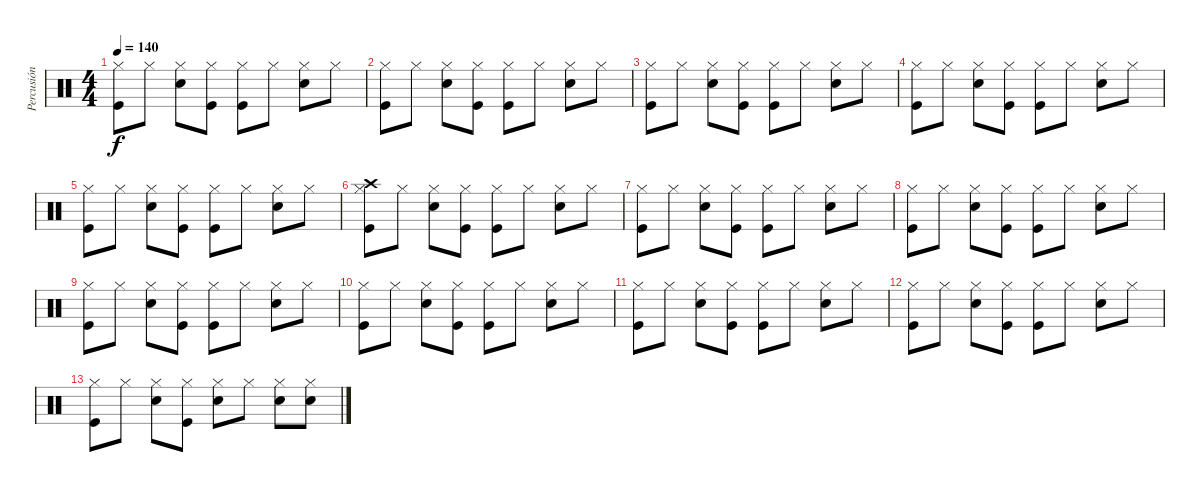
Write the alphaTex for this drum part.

\track ("Percusión" "Percusión") {instrument percussion}
\staff {score}
\articulation defaults
\ts (4 4)
\tempo 140
\clef neutral
\ks c
("Hi-Hat (closed)" "Kick (hit)").8{dy f} "Hi-Hat (closed)".8 ("Snare (hit) 2" "Hi-Hat (closed)").8 ("Kick (hit)" "Hi-Hat (closed)").8 ("Kick (hit)" "Hi-Hat (closed)").8 "Hi-Hat (closed)".8 ("Snare (hit) 2" "Hi-Hat (closed)").8 "Hi-Hat (closed)".8 |
("Hi-Hat (closed)" "Kick (hit)").8 "Hi-Hat (closed)".8 ("Snare (hit) 2" "Hi-Hat (closed)").8 ("Kick (hit)" "Hi-Hat (closed)").8 ("Kick (hit)" "Hi-Hat (closed)").8 "Hi-Hat (closed)".8 ("Snare (hit) 2" "Hi-Hat (closed)").8 "Hi-Hat (closed)".8 |
("Hi-Hat (closed)" "Kick (hit)").8 "Hi-Hat (closed)".8 ("Snare (hit) 2" "Hi-Hat (closed)").8 ("Kick (hit)" "Hi-Hat (closed)").8 ("Kick (hit)" "Hi-Hat (closed)").8 "Hi-Hat (closed)".8 ("Snare (hit) 2" "Hi-Hat (closed)").8 "Hi-Hat (closed)".8 |
("Hi-Hat (closed)" "Kick (hit)").8 "Hi-Hat (closed)".8 ("Snare (hit) 2" "Hi-Hat (closed)").8 ("Kick (hit)" "Hi-Hat (closed)").8 ("Kick (hit)" "Hi-Hat (closed)").8 "Hi-Hat (closed)".8 ("Snare (hit) 2" "Hi-Hat (closed)").8 "Hi-Hat (closed)".8 |
("Hi-Hat (closed)" "Kick (hit)").8 "Hi-Hat (closed)".8 ("Snare (hit) 2" "Hi-Hat (closed)").8 ("Kick (hit)" "Hi-Hat (closed)").8 ("Kick (hit)" "Hi-Hat (closed)").8 "Hi-Hat (closed)".8 ("Snare (hit) 2" "Hi-Hat (closed)").8 "Hi-Hat (closed)".8 |
("Hi-Hat (closed)" "Crash high (hit)" "Kick (hit)").8 "Hi-Hat (closed)".8 ("Snare (hit) 2" "Hi-Hat (closed)").8 ("Kick (hit)" "Hi-Hat (closed)").8 ("Kick (hit)" "Hi-Hat (closed)").8 "Hi-Hat (closed)".8 ("Snare (hit) 2" "Hi-Hat (closed)").8 "Hi-Hat (closed)".8 |
("Hi-Hat (closed)" "Kick (hit)").8 "Hi-Hat (closed)".8 ("Snare (hit) 2" "Hi-Hat (closed)").8 ("Kick (hit)" "Hi-Hat (closed)").8 ("Kick (hit)" "Hi-Hat (closed)").8 "Hi-Hat (closed)".8 ("Snare (hit) 2" "Hi-Hat (closed)").8 "Hi-Hat (closed)".8 |
("Hi-Hat (closed)" "Kick (hit)").8 "Hi-Hat (closed)".8 ("Snare (hit) 2" "Hi-Hat (closed)").8 ("Kick (hit)" "Hi-Hat (closed)").8 ("Kick (hit)" "Hi-Hat (closed)").8 "Hi-Hat (closed)".8 ("Snare (hit) 2" "Hi-Hat (closed)").8 "Hi-Hat (closed)".8 |
("Hi-Hat (closed)" "Kick (hit)").8 "Hi-Hat (closed)".8 ("Snare (hit) 2" "Hi-Hat (closed)").8 ("Kick (hit)" "Hi-Hat (closed)").8 ("Kick (hit)" "Hi-Hat (closed)").8 "Hi-Hat (closed)".8 ("Snare (hit) 2" "Hi-Hat (closed)").8 "Hi-Hat (closed)".8 |
("Hi-Hat (closed)" "Kick (hit)").8 "Hi-Hat (closed)".8 ("Snare (hit) 2" "Hi-Hat (closed)").8 ("Kick (hit)" "Hi-Hat (closed)").8 ("Kick (hit)" "Hi-Hat (closed)").8 "Hi-Hat (closed)".8 ("Snare (hit) 2" "Hi-Hat (closed)").8 "Hi-Hat (closed)".8 |
("Hi-Hat (closed)" "Kick (hit)").8 "Hi-Hat (closed)".8 ("Snare (hit) 2" "Hi-Hat (closed)").8 ("Kick (hit)" "Hi-Hat (closed)").8 ("Kick (hit)" "Hi-Hat (closed)").8 "Hi-Hat (closed)".8 ("Snare (hit) 2" "Hi-Hat (closed)").8 "Hi-Hat (closed)".8 |
("Hi-Hat (closed)" "Kick (hit)").8 "Hi-Hat (closed)".8 ("Snare (hit) 2" "Hi-Hat (closed)").8 ("Kick (hit)" "Hi-Hat (closed)").8 ("Kick (hit)" "Hi-Hat (closed)").8 "Hi-Hat (closed)".8 ("Snare (hit) 2" "Hi-Hat (closed)").8 "Hi-Hat (closed)".8 |
("Hi-Hat (closed)" "Kick (hit)").8 "Hi-Hat (closed)".8 ("Snare (hit) 2" "Hi-Hat (closed)").8 ("Kick (hit)" "Hi-Hat (closed)").8 ("Hi-Hat (closed)" "Snare (hit) 2").8 "Hi-Hat (closed)".8 ("Hi-Hat (closed)" "Snare (hit) 2").8 ("Hi-Hat (closed)" "Snare (hit) 2").8
